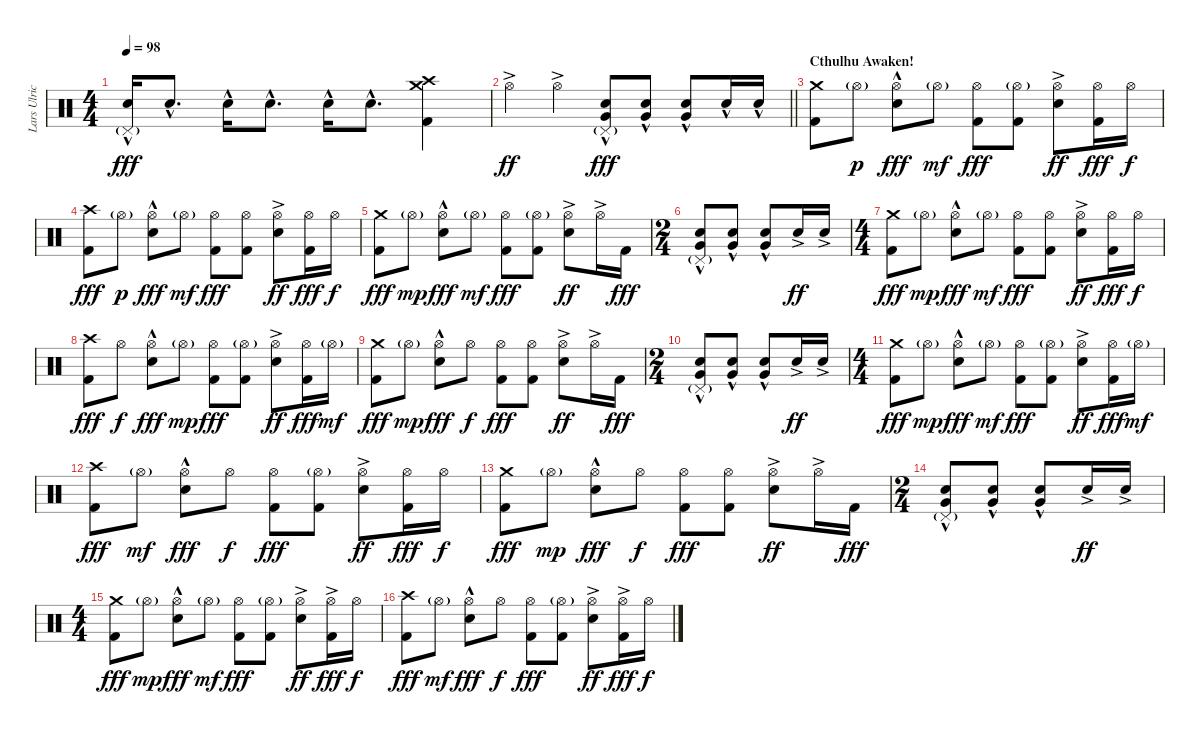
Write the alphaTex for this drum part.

\track ("Lars Ulrich (Drums)" "Lars Ulric") {instrument percussion}
\staff {score}
\articulation defaults
\ts (4 4)
\tempo 98
\clef neutral
\ks c
("Pedal Hi-Hat (hit)"{g} "Electric Snare (hit)"{hac}).16{dy fff} "Electric Snare (hit)"{hac}.8{d} "Electric Snare (hit)"{hac}.16 "Electric Snare (hit)"{hac}.8{d} "Electric Snare (hit)"{hac}.16 "Electric Snare (hit)"{hac}.8{d} ("Crash medium (hit)" "Crash high (hit)" "Kick (hit) 2").4 |
\barLineRight lightlight "Hi-Hat (open)"{ac}.4{dy ff} "Hi-Hat (open)"{ac}.4
("Pedal Hi-Hat (hit)"{g} "Electric Snare (hit)"{hac} "Very Low Tom (hit)"{hac}).8{dy fff} ("Electric Snare (hit)"{hac} "Very Low Tom (hit)"{hac}).8 ("Electric Snare (hit)"{hac} "Very Low Tom (hit)"{hac}).8 "Electric Snare (hit)"{hac}.16 "Electric Snare (hit)"{hac}.16 |
\section ("" "Cthulhu Awaken!")
("Crash medium (hit)" "Kick (hit) 2").8 "Hi-Hat (open)"{g}.8{dy p} ("Hi-Hat (open)"{hac} "Electric Snare (hit)"{hac}).8{dy fff} "Hi-Hat (open)"{g}.8{dy mf} ("Hi-Hat (open)" "Kick (hit) 2").8{dy fff} ("Hi-Hat (open)"{g} "Kick (hit) 2").8 ("Hi-Hat (open)"{ac} "Electric Snare (hit)"{ac}).8{dy ff} ("Hi-Hat (open)" "Kick (hit) 2").16{dy fff} "Hi-Hat (open)".16{dy f} |
("Crash high (hit)" "Kick (hit) 2").8{dy fff} "Hi-Hat (open)"{g}.8{dy p} ("Hi-Hat (open)"{hac} "Electric Snare (hit)"{hac}).8{dy fff} "Hi-Hat (open)"{g}.8{dy mf} ("Hi-Hat (open)" "Kick (hit) 2").8{dy fff} ("Hi-Hat (open)" "Kick (hit) 2").8 ("Hi-Hat (open)"{ac} "Electric Snare (hit)"{ac}).8{dy ff} ("Hi-Hat (open)" "Kick (hit) 2").16{dy fff} "Hi-Hat (open)".16{dy f} |
("Crash medium (hit)" "Kick (hit) 2").8{dy fff} "Hi-Hat (open)"{g}.8{dy mp} ("Hi-Hat (open)"{hac} "Electric Snare (hit)"{hac}).8{dy fff} "Hi-Hat (open)"{g}.8{dy mf} ("Hi-Hat (open)" "Kick (hit) 2").8{dy fff} ("Hi-Hat (open)"{g} "Kick (hit) 2").8 ("Hi-Hat (open)"{ac} "Electric Snare (hit)"{ac}).8{dy ff} "Hi-Hat (open)"{ac}.16 "Kick (hit) 2".16{dy fff} |
\ts (2 4)
("Pedal Hi-Hat (hit)"{g} "Electric Snare (hit)"{hac} "Very Low Tom (hit)"{hac}).8 ("Electric Snare (hit)"{hac} "Very Low Tom (hit)"{hac}).8 ("Electric Snare (hit)"{hac} "Very Low Tom (hit)"{hac}).8 "Electric Snare (hit)"{ac}.16{dy ff} "Electric Snare (hit)"{ac}.16 |
\ts (4 4)
("Crash medium (hit)" "Kick (hit) 2").8{dy fff} "Hi-Hat (open)"{g}.8{dy mp} ("Hi-Hat (open)"{hac} "Electric Snare (hit)"{hac}).8{dy fff} "Hi-Hat (open)"{g}.8{dy mf} ("Hi-Hat (open)" "Kick (hit) 2").8{dy fff} ("Hi-Hat (open)" "Kick (hit) 2").8 ("Hi-Hat (open)"{ac} "Electric Snare (hit)"{ac}).8{dy ff} ("Hi-Hat (open)" "Kick (hit) 2").16{dy fff} "Hi-Hat (open)".16{dy f} |
("Crash high (hit)" "Kick (hit) 2").8{dy fff} "Hi-Hat (open)".8{dy f} ("Hi-Hat (open)"{hac} "Electric Snare (hit)"{hac}).8{dy fff} "Hi-Hat (open)"{g}.8{dy mp} ("Hi-Hat (open)" "Kick (hit) 2").8{dy fff} ("Hi-Hat (open)"{g} "Kick (hit) 2").8 ("Hi-Hat (open)"{ac} "Electric Snare (hit)"{ac}).8{dy ff} ("Hi-Hat (open)" "Kick (hit) 2").16{dy fff} "Hi-Hat (open)"{g}.16{dy mf} |
("Crash medium (hit)" "Kick (hit) 2").8{dy fff} "Hi-Hat (open)"{g}.8{dy mp} ("Hi-Hat (open)"{hac} "Electric Snare (hit)"{hac}).8{dy fff} "Hi-Hat (open)".8{dy f} ("Hi-Hat (open)" "Kick (hit) 2").8{dy fff} ("Hi-Hat (open)" "Kick (hit) 2").8 ("Hi-Hat (open)"{ac} "Electric Snare (hit)"{ac}).8{dy ff} "Hi-Hat (open)"{ac}.16 "Kick (hit) 2".16{dy fff} |
\ts (2 4)
("Pedal Hi-Hat (hit)"{g} "Electric Snare (hit)"{hac} "Very Low Tom (hit)"{hac}).8 ("Electric Snare (hit)"{hac} "Very Low Tom (hit)"{hac}).8 ("Electric Snare (hit)"{hac} "Very Low Tom (hit)"{hac}).8 "Electric Snare (hit)"{ac}.16{dy ff} "Electric Snare (hit)"{ac}.16 |
\ts (4 4)
("Crash medium (hit)" "Kick (hit) 2").8{dy fff} "Hi-Hat (open)"{g}.8{dy mp} ("Hi-Hat (open)"{hac} "Electric Snare (hit)"{hac}).8{dy fff} "Hi-Hat (open)"{g}.8{dy mf} ("Hi-Hat (open)" "Kick (hit) 2").8{dy fff} ("Hi-Hat (open)"{g} "Kick (hit) 2").8 ("Hi-Hat (open)"{ac} "Electric Snare (hit)"{ac}).8{dy ff} ("Hi-Hat (open)" "Kick (hit) 2").16{dy fff} "Hi-Hat (open)"{g}.16{dy mf} |
("Crash high (hit)" "Kick (hit) 2").8{dy fff} "Hi-Hat (open)"{g}.8{dy mf} ("Hi-Hat (open)"{hac} "Electric Snare (hit)"{hac}).8{dy fff} "Hi-Hat (open)".8{dy f} ("Hi-Hat (open)" "Kick (hit) 2").8{dy fff} ("Hi-Hat (open)"{g} "Kick (hit) 2").8 ("Hi-Hat (open)"{ac} "Electric Snare (hit)"{ac}).8{dy ff} ("Hi-Hat (open)" "Kick (hit) 2").16{dy fff} "Hi-Hat (open)".16{dy f} |
("Crash medium (hit)" "Kick (hit) 2").8{dy fff} "Hi-Hat (open)"{g}.8{dy mp} ("Hi-Hat (open)"{hac} "Electric Snare (hit)"{hac}).8{dy fff} "Hi-Hat (open)".8{dy f} ("Hi-Hat (open)" "Kick (hit) 2").8{dy fff} ("Hi-Hat (open)" "Kick (hit) 2").8 ("Hi-Hat (open)"{ac} "Electric Snare (hit)"{ac}).8{dy ff} "Hi-Hat (open)"{ac}.16 "Kick (hit) 2".16{dy fff} |
\ts (2 4)
("Pedal Hi-Hat (hit)"{g} "Electric Snare (hit)"{hac} "Very Low Tom (hit)"{hac}).8 ("Electric Snare (hit)"{hac} "Very Low Tom (hit)"{hac}).8 ("Electric Snare (hit)"{hac} "Very Low Tom (hit)"{hac}).8 "Electric Snare (hit)"{ac}.16{dy ff} "Electric Snare (hit)"{ac}.16 |
\ts (4 4)
("Crash medium (hit)" "Kick (hit) 2").8{dy fff} "Hi-Hat (open)"{g}.8{dy mp} ("Hi-Hat (open)"{hac} "Electric Snare (hit)"{hac}).8{dy fff} "Hi-Hat (open)"{g}.8{dy mf} ("Hi-Hat (open)" "Kick (hit) 2").8{dy fff} ("Hi-Hat (open)"{g} "Kick (hit) 2").8 ("Hi-Hat (open)"{ac} "Electric Snare (hit)"{ac}).8{dy ff} ("Hi-Hat (open)"{ac} "Kick (hit) 2").16{dy fff} "Hi-Hat (open)".16{dy f} |
("Crash high (hit)" "Kick (hit) 2").8{dy fff} "Hi-Hat (open)"{g}.8{dy mf} ("Hi-Hat (open)"{hac} "Electric Snare (hit)"{hac}).8{dy fff} "Hi-Hat (open)".8{dy f} ("Hi-Hat (open)" "Kick (hit) 2").8{dy fff} ("Hi-Hat (open)"{g} "Kick (hit) 2").8 ("Hi-Hat (open)"{ac} "Electric Snare (hit)"{ac}).8{dy ff} ("Hi-Hat (open)"{ac} "Kick (hit) 2").16{dy fff} "Hi-Hat (open)".16{dy f}
